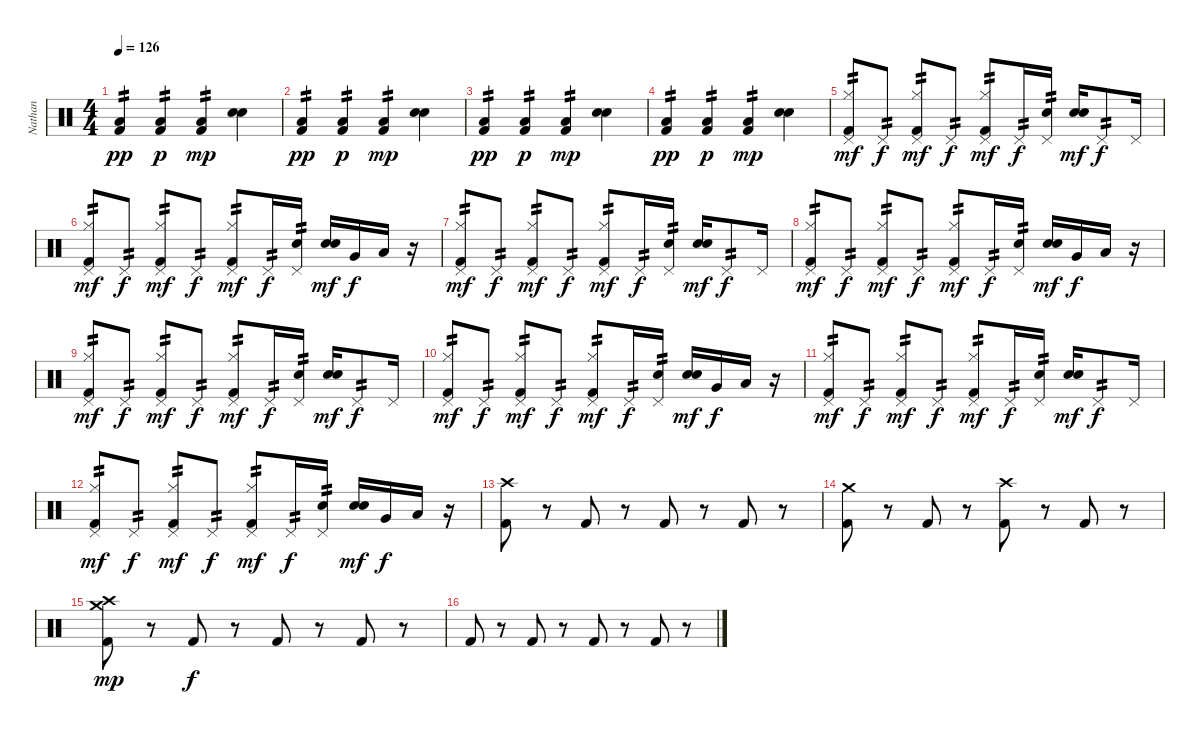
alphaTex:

\track ("Nathan" "Nathan") {instrument percussion}
\staff {score}
\articulation defaults
\ts (4 4)
\tempo 126
\clef neutral
\ks c
("Kick (hit) 2" "Low Tom (hit)").4{tp 2 dy pp} ("Kick (hit) 2" "Low Tom (hit)").4{tp 2 dy p} ("Kick (hit) 2" "Low Tom (hit)").4{tp 2 dy mp} ("Snare (hit) 2" "Electric Snare (hit)").4 |
("Kick (hit) 2" "Low Tom (hit)").4{tp 2 dy pp} ("Kick (hit) 2" "Low Tom (hit)").4{tp 2 dy p} ("Kick (hit) 2" "Low Tom (hit)").4{tp 2 dy mp} ("Snare (hit) 2" "Electric Snare (hit)").4 |
("Kick (hit) 2" "Low Tom (hit)").4{tp 2 dy pp} ("Kick (hit) 2" "Low Tom (hit)").4{tp 2 dy p} ("Kick (hit) 2" "Low Tom (hit)").4{tp 2 dy mp} ("Snare (hit) 2" "Electric Snare (hit)").4 |
("Kick (hit) 2" "Low Tom (hit)").4{tp 2 dy pp} ("Kick (hit) 2" "Low Tom (hit)").4{tp 2 dy p} ("Kick (hit) 2" "Low Tom (hit)").4{tp 2 dy mp} ("Snare (hit) 2" "Electric Snare (hit)").4 |
("Kick (hit) 2" "Hi-Hat (closed)" "Pedal Hi-Hat (hit)").8{tp 2 dy mf} "Pedal Hi-Hat (hit)".8{tp 2 dy f} ("Kick (hit) 2" "Hi-Hat (closed)" "Pedal Hi-Hat (hit)").8{tp 2 dy mf} "Pedal Hi-Hat (hit)".8{tp 2 dy f} ("Kick (hit) 2" "Hi-Hat (closed)" "Pedal Hi-Hat (hit)").8{tp 2 dy mf} "Pedal Hi-Hat (hit)".16{tp 2 dy f} ("Pedal Hi-Hat (hit)" "Snare (hit) 2").16{tp 2} ("Snare (hit) 2" "Electric Snare (hit)").16{dy mf} "Pedal Hi-Hat (hit)".8{tp 2 dy f} "Pedal Hi-Hat (hit)".16 |
("Kick (hit) 2" "Hi-Hat (closed)" "Pedal Hi-Hat (hit)").8{tp 2 dy mf} "Pedal Hi-Hat (hit)".8{tp 2 dy f} ("Kick (hit) 2" "Hi-Hat (closed)" "Pedal Hi-Hat (hit)").8{tp 2 dy mf} "Pedal Hi-Hat (hit)".8{tp 2 dy f} ("Kick (hit) 2" "Hi-Hat (closed)" "Pedal Hi-Hat (hit)").8{tp 2 dy mf} "Pedal Hi-Hat (hit)".16{tp 2 dy f} ("Pedal Hi-Hat (hit)" "Snare (hit) 2").16{tp 2} ("Snare (hit) 2" "Electric Snare (hit)").16{dy mf} "Very Low Tom (hit)".16{dy f} "Low Floor Tom (hit)".16 r.16 |
("Kick (hit) 2" "Hi-Hat (closed)" "Pedal Hi-Hat (hit)").8{tp 2 dy mf} "Pedal Hi-Hat (hit)".8{tp 2 dy f} ("Kick (hit) 2" "Hi-Hat (closed)" "Pedal Hi-Hat (hit)").8{tp 2 dy mf} "Pedal Hi-Hat (hit)".8{tp 2 dy f} ("Kick (hit) 2" "Hi-Hat (closed)" "Pedal Hi-Hat (hit)").8{tp 2 dy mf} "Pedal Hi-Hat (hit)".16{tp 2 dy f} ("Pedal Hi-Hat (hit)" "Snare (hit) 2").16{tp 2} ("Snare (hit) 2" "Electric Snare (hit)").16{dy mf} "Pedal Hi-Hat (hit)".8{tp 2 dy f} "Pedal Hi-Hat (hit)".16 |
("Kick (hit) 2" "Hi-Hat (closed)" "Pedal Hi-Hat (hit)").8{tp 2 dy mf} "Pedal Hi-Hat (hit)".8{tp 2 dy f} ("Kick (hit) 2" "Hi-Hat (closed)" "Pedal Hi-Hat (hit)").8{tp 2 dy mf} "Pedal Hi-Hat (hit)".8{tp 2 dy f} ("Kick (hit) 2" "Hi-Hat (closed)" "Pedal Hi-Hat (hit)").8{tp 2 dy mf} "Pedal Hi-Hat (hit)".16{tp 2 dy f} ("Pedal Hi-Hat (hit)" "Snare (hit) 2").16{tp 2} ("Snare (hit) 2" "Electric Snare (hit)").16{dy mf} "Very Low Tom (hit)".16{dy f} "Low Floor Tom (hit)".16 r.16 |
("Kick (hit) 2" "Hi-Hat (closed)" "Pedal Hi-Hat (hit)").8{tp 2 dy mf} "Pedal Hi-Hat (hit)".8{tp 2 dy f} ("Kick (hit) 2" "Hi-Hat (closed)" "Pedal Hi-Hat (hit)").8{tp 2 dy mf} "Pedal Hi-Hat (hit)".8{tp 2 dy f} ("Kick (hit) 2" "Hi-Hat (closed)" "Pedal Hi-Hat (hit)").8{tp 2 dy mf} "Pedal Hi-Hat (hit)".16{tp 2 dy f} ("Pedal Hi-Hat (hit)" "Snare (hit) 2").16{tp 2} ("Snare (hit) 2" "Electric Snare (hit)").16{dy mf} "Pedal Hi-Hat (hit)".8{tp 2 dy f} "Pedal Hi-Hat (hit)".16 |
("Kick (hit) 2" "Hi-Hat (closed)" "Pedal Hi-Hat (hit)").8{tp 2 dy mf} "Pedal Hi-Hat (hit)".8{tp 2 dy f} ("Kick (hit) 2" "Hi-Hat (closed)" "Pedal Hi-Hat (hit)").8{tp 2 dy mf} "Pedal Hi-Hat (hit)".8{tp 2 dy f} ("Kick (hit) 2" "Hi-Hat (closed)" "Pedal Hi-Hat (hit)").8{tp 2 dy mf} "Pedal Hi-Hat (hit)".16{tp 2 dy f} ("Pedal Hi-Hat (hit)" "Snare (hit) 2").16{tp 2} ("Snare (hit) 2" "Electric Snare (hit)").16{dy mf} "Very Low Tom (hit)".16{dy f} "Low Floor Tom (hit)".16 r.16 |
("Kick (hit) 2" "Hi-Hat (closed)" "Pedal Hi-Hat (hit)").8{tp 2 dy mf} "Pedal Hi-Hat (hit)".8{tp 2 dy f} ("Kick (hit) 2" "Hi-Hat (closed)" "Pedal Hi-Hat (hit)").8{tp 2 dy mf} "Pedal Hi-Hat (hit)".8{tp 2 dy f} ("Kick (hit) 2" "Hi-Hat (closed)" "Pedal Hi-Hat (hit)").8{tp 2 dy mf} "Pedal Hi-Hat (hit)".16{tp 2 dy f} ("Pedal Hi-Hat (hit)" "Snare (hit) 2").16{tp 2} ("Snare (hit) 2" "Electric Snare (hit)").16{dy mf} "Pedal Hi-Hat (hit)".8{tp 2 dy f} "Pedal Hi-Hat (hit)".16 |
("Kick (hit) 2" "Hi-Hat (closed)" "Pedal Hi-Hat (hit)").8{tp 2 dy mf} "Pedal Hi-Hat (hit)".8{tp 2 dy f} ("Kick (hit) 2" "Hi-Hat (closed)" "Pedal Hi-Hat (hit)").8{tp 2 dy mf} "Pedal Hi-Hat (hit)".8{tp 2 dy f} ("Kick (hit) 2" "Hi-Hat (closed)" "Pedal Hi-Hat (hit)").8{tp 2 dy mf} "Pedal Hi-Hat (hit)".16{tp 2 dy f} ("Pedal Hi-Hat (hit)" "Snare (hit) 2").16{tp 2} ("Snare (hit) 2" "Electric Snare (hit)").16{dy mf} "Very Low Tom (hit)".16{dy f} "Low Floor Tom (hit)".16 r.16 |
("Kick (hit) 2" "Crash high (hit)").8 r.8 "Kick (hit) 2".8 r.8 "Kick (hit) 2".8 r.8 "Kick (hit) 2".8 r.8 |
("Kick (hit) 2" "Crash medium (hit)").8 r.8 "Kick (hit) 2".8 r.8 ("Kick (hit) 2" "Crash high (hit)").8 r.8 "Kick (hit) 2".8 r.8 |
("Kick (hit) 2" "Crash medium (hit)" "Crash high (hit)").8{dy mp} r.8 "Kick (hit) 2".8{dy f} r.8 "Kick (hit) 2".8 r.8 "Kick (hit) 2".8 r.8 |
"Kick (hit) 2".8 r.8 "Kick (hit) 2".8 r.8 "Kick (hit) 2".8 r.8 "Kick (hit) 2".8 r.8
